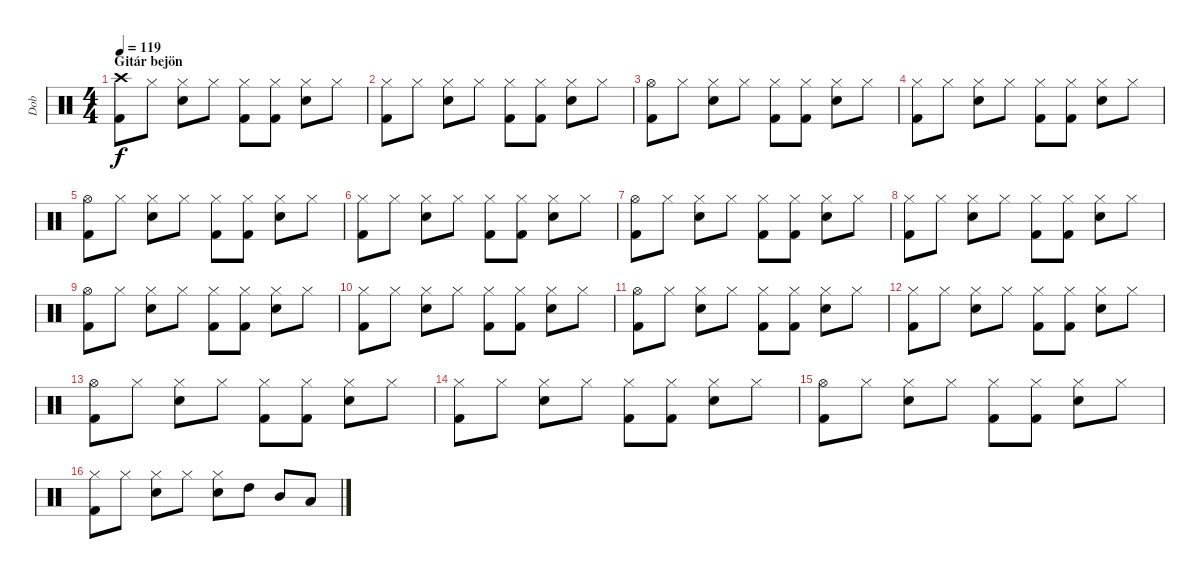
\track ("Dob" "Dob") {instrument percussion}
\staff {score}
\articulation defaults
\ts (4 4)
\section ("" "Gitár bejön")
\tempo 119
\clef neutral
\ks c
("Crash high (hit)" "Kick (hit) 2").8{dy f} "Hi-Hat (closed)".8 ("Hi-Hat (closed)" "Snare (hit) 2").8 "Hi-Hat (closed)".8 ("Hi-Hat (closed)" "Kick (hit) 2").8 ("Hi-Hat (closed)" "Kick (hit) 2").8 ("Hi-Hat (closed)" "Snare (hit) 2").8 "Hi-Hat (closed)".8 |
("Hi-Hat (closed)" "Kick (hit) 2").8 "Hi-Hat (closed)".8 ("Hi-Hat (closed)" "Snare (hit) 2").8 "Hi-Hat (closed)".8 ("Hi-Hat (closed)" "Kick (hit) 2").8 ("Hi-Hat (closed)" "Kick (hit) 2").8 ("Hi-Hat (closed)" "Snare (hit) 2").8 "Hi-Hat (closed)".8 |
("Hi-Hat (open)" "Kick (hit) 2").8 "Hi-Hat (closed)".8 ("Hi-Hat (closed)" "Snare (hit) 2").8 "Hi-Hat (closed)".8 ("Hi-Hat (closed)" "Kick (hit) 2").8 ("Hi-Hat (closed)" "Kick (hit) 2").8 ("Hi-Hat (closed)" "Snare (hit) 2").8 "Hi-Hat (closed)".8 |
("Hi-Hat (closed)" "Kick (hit) 2").8 "Hi-Hat (closed)".8 ("Hi-Hat (closed)" "Snare (hit) 2").8 "Hi-Hat (closed)".8 ("Hi-Hat (closed)" "Kick (hit) 2").8 ("Hi-Hat (closed)" "Kick (hit) 2").8 ("Hi-Hat (closed)" "Snare (hit) 2").8 "Hi-Hat (closed)".8 |
("Hi-Hat (open)" "Kick (hit) 2").8 "Hi-Hat (closed)".8 ("Hi-Hat (closed)" "Snare (hit) 2").8 "Hi-Hat (closed)".8 ("Hi-Hat (closed)" "Kick (hit) 2").8 ("Hi-Hat (closed)" "Kick (hit) 2").8 ("Hi-Hat (closed)" "Snare (hit) 2").8 "Hi-Hat (closed)".8 |
("Hi-Hat (closed)" "Kick (hit) 2").8 "Hi-Hat (closed)".8 ("Hi-Hat (closed)" "Snare (hit) 2").8 "Hi-Hat (closed)".8 ("Hi-Hat (closed)" "Kick (hit) 2").8 ("Hi-Hat (closed)" "Kick (hit) 2").8 ("Hi-Hat (closed)" "Snare (hit) 2").8 "Hi-Hat (closed)".8 |
("Hi-Hat (open)" "Kick (hit) 2").8 "Hi-Hat (closed)".8 ("Hi-Hat (closed)" "Snare (hit) 2").8 "Hi-Hat (closed)".8 ("Hi-Hat (closed)" "Kick (hit) 2").8 ("Hi-Hat (closed)" "Kick (hit) 2").8 ("Hi-Hat (closed)" "Snare (hit) 2").8 "Hi-Hat (closed)".8 |
("Hi-Hat (closed)" "Kick (hit) 2").8 "Hi-Hat (closed)".8 ("Hi-Hat (closed)" "Snare (hit) 2").8 "Hi-Hat (closed)".8 ("Hi-Hat (closed)" "Kick (hit) 2").8 ("Hi-Hat (closed)" "Kick (hit) 2").8 ("Hi-Hat (closed)" "Snare (hit) 2").8 "Hi-Hat (closed)".8 |
("Hi-Hat (open)" "Kick (hit) 2").8 "Hi-Hat (closed)".8 ("Hi-Hat (closed)" "Snare (hit) 2").8 "Hi-Hat (closed)".8 ("Hi-Hat (closed)" "Kick (hit) 2").8 ("Hi-Hat (closed)" "Kick (hit) 2").8 ("Hi-Hat (closed)" "Snare (hit) 2").8 "Hi-Hat (closed)".8 |
("Hi-Hat (closed)" "Kick (hit) 2").8 "Hi-Hat (closed)".8 ("Hi-Hat (closed)" "Snare (hit) 2").8 "Hi-Hat (closed)".8 ("Hi-Hat (closed)" "Kick (hit) 2").8 ("Hi-Hat (closed)" "Kick (hit) 2").8 ("Hi-Hat (closed)" "Snare (hit) 2").8 "Hi-Hat (closed)".8 |
("Hi-Hat (open)" "Kick (hit) 2").8 "Hi-Hat (closed)".8 ("Hi-Hat (closed)" "Snare (hit) 2").8 "Hi-Hat (closed)".8 ("Hi-Hat (closed)" "Kick (hit) 2").8 ("Hi-Hat (closed)" "Kick (hit) 2").8 ("Hi-Hat (closed)" "Snare (hit) 2").8 "Hi-Hat (closed)".8 |
("Hi-Hat (closed)" "Kick (hit) 2").8 "Hi-Hat (closed)".8 ("Hi-Hat (closed)" "Snare (hit) 2").8 "Hi-Hat (closed)".8 ("Hi-Hat (closed)" "Kick (hit) 2").8 ("Hi-Hat (closed)" "Kick (hit) 2").8 ("Hi-Hat (closed)" "Snare (hit) 2").8 "Hi-Hat (closed)".8 |
("Hi-Hat (open)" "Kick (hit) 2").8 "Hi-Hat (closed)".8 ("Hi-Hat (closed)" "Snare (hit) 2").8 "Hi-Hat (closed)".8 ("Hi-Hat (closed)" "Kick (hit) 2").8 ("Hi-Hat (closed)" "Kick (hit) 2").8 ("Hi-Hat (closed)" "Snare (hit) 2").8 "Hi-Hat (closed)".8 |
("Hi-Hat (closed)" "Kick (hit) 2").8 "Hi-Hat (closed)".8 ("Hi-Hat (closed)" "Snare (hit) 2").8 "Hi-Hat (closed)".8 ("Hi-Hat (closed)" "Kick (hit) 2").8 ("Hi-Hat (closed)" "Kick (hit) 2").8 ("Hi-Hat (closed)" "Snare (hit) 2").8 "Hi-Hat (closed)".8 |
("Hi-Hat (open)" "Kick (hit) 2").8 "Hi-Hat (closed)".8 ("Hi-Hat (closed)" "Snare (hit) 2").8 "Hi-Hat (closed)".8 ("Hi-Hat (closed)" "Kick (hit) 2").8 ("Hi-Hat (closed)" "Kick (hit) 2").8 ("Hi-Hat (closed)" "Snare (hit) 2").8 "Hi-Hat (closed)".8 |
("Hi-Hat (closed)" "Kick (hit) 2").8 "Hi-Hat (closed)".8 ("Hi-Hat (closed)" "Snare (hit) 2").8 "Hi-Hat (closed)".8 ("Hi-Hat (closed)" "Snare (hit) 2").8 "High Tom (hit)".8 "Mid Tom (hit)".8 "Low Tom (hit)".8
